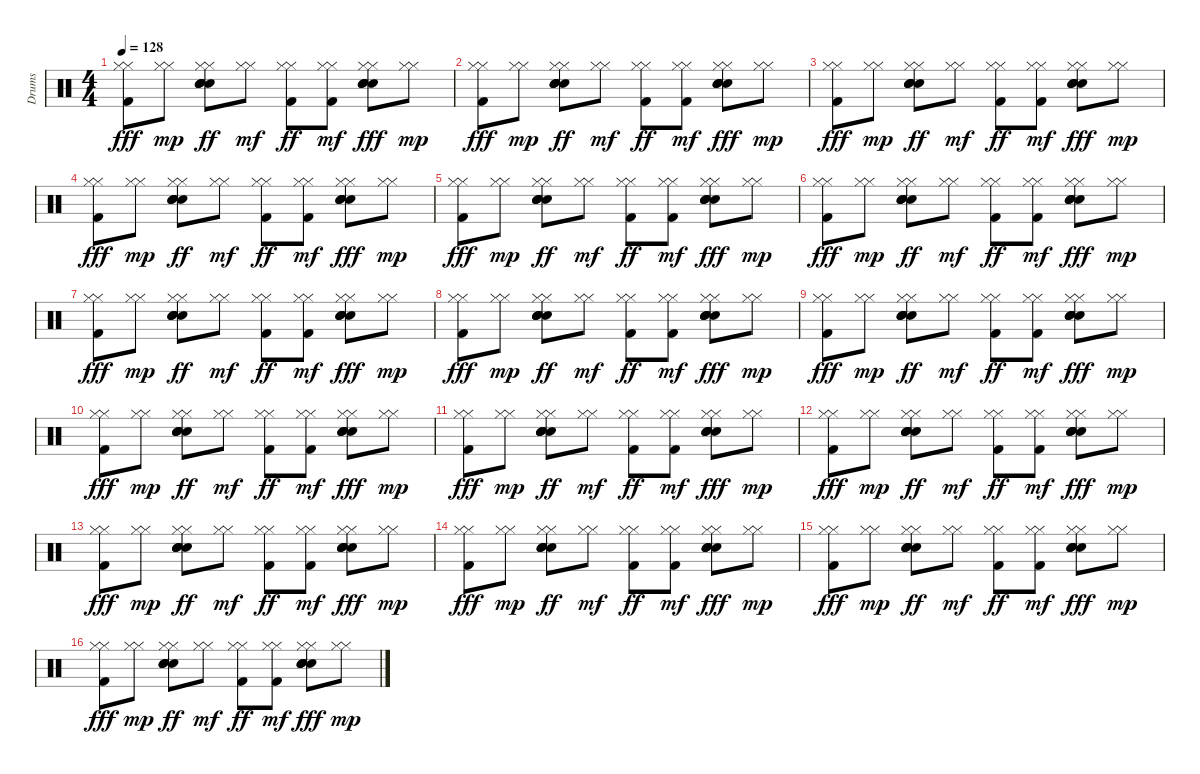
\track ("Drums" "Drums") {instrument percussion}
\staff {score}
\articulation defaults
\ts (4 4)
\tempo 128
\clef neutral
\ks c
("Kick (hit) 2" "Hi-Hat (closed)" "Hi-Hat (closed)").8{dy fff} ("Hi-Hat (closed)" "Hi-Hat (closed)").8{dy mp} ("Hi-Hat (closed)" "Hi-Hat (closed)" "Snare (hit) 2" "Electric Snare (hit)" "Electric Snare (hit)" "Electric Snare (hit)").8{dy ff} ("Hi-Hat (closed)" "Hi-Hat (closed)").8{dy mf} ("Kick (hit) 2" "Hi-Hat (closed)" "Hi-Hat (closed)").8{dy ff} ("Kick (hit) 2" "Hi-Hat (closed)" "Hi-Hat (closed)").8{dy mf} ("Snare (hit) 2" "Hi-Hat (closed)" "Hi-Hat (closed)" "Electric Snare (hit)" "Electric Snare (hit)" "Electric Snare (hit)").8{dy fff} ("Hi-Hat (closed)" "Hi-Hat (closed)").8{dy mp} |
("Kick (hit) 2" "Hi-Hat (closed)" "Hi-Hat (closed)").8{dy fff} ("Hi-Hat (closed)" "Hi-Hat (closed)").8{dy mp} ("Hi-Hat (closed)" "Hi-Hat (closed)" "Snare (hit) 2" "Electric Snare (hit)" "Electric Snare (hit)" "Electric Snare (hit)").8{dy ff} ("Hi-Hat (closed)" "Hi-Hat (closed)").8{dy mf} ("Kick (hit) 2" "Hi-Hat (closed)" "Hi-Hat (closed)").8{dy ff} ("Kick (hit) 2" "Hi-Hat (closed)" "Hi-Hat (closed)").8{dy mf} ("Snare (hit) 2" "Hi-Hat (closed)" "Hi-Hat (closed)" "Electric Snare (hit)" "Electric Snare (hit)" "Electric Snare (hit)").8{dy fff} ("Hi-Hat (closed)" "Hi-Hat (closed)").8{dy mp} |
("Kick (hit) 2" "Hi-Hat (closed)" "Hi-Hat (closed)").8{dy fff} ("Hi-Hat (closed)" "Hi-Hat (closed)").8{dy mp} ("Hi-Hat (closed)" "Hi-Hat (closed)" "Snare (hit) 2" "Electric Snare (hit)" "Electric Snare (hit)" "Electric Snare (hit)").8{dy ff} ("Hi-Hat (closed)" "Hi-Hat (closed)").8{dy mf} ("Kick (hit) 2" "Hi-Hat (closed)" "Hi-Hat (closed)").8{dy ff} ("Kick (hit) 2" "Hi-Hat (closed)" "Hi-Hat (closed)").8{dy mf} ("Snare (hit) 2" "Hi-Hat (closed)" "Hi-Hat (closed)" "Electric Snare (hit)" "Electric Snare (hit)" "Electric Snare (hit)").8{dy fff} ("Hi-Hat (closed)" "Hi-Hat (closed)").8{dy mp} |
("Kick (hit) 2" "Hi-Hat (closed)" "Hi-Hat (closed)").8{dy fff} ("Hi-Hat (closed)" "Hi-Hat (closed)").8{dy mp} ("Hi-Hat (closed)" "Hi-Hat (closed)" "Snare (hit) 2" "Electric Snare (hit)" "Electric Snare (hit)" "Electric Snare (hit)").8{dy ff} ("Hi-Hat (closed)" "Hi-Hat (closed)").8{dy mf} ("Kick (hit) 2" "Hi-Hat (closed)" "Hi-Hat (closed)").8{dy ff} ("Kick (hit) 2" "Hi-Hat (closed)" "Hi-Hat (closed)").8{dy mf} ("Snare (hit) 2" "Hi-Hat (closed)" "Hi-Hat (closed)" "Electric Snare (hit)" "Electric Snare (hit)" "Electric Snare (hit)").8{dy fff} ("Hi-Hat (closed)" "Hi-Hat (closed)").8{dy mp} |
("Kick (hit) 2" "Hi-Hat (closed)" "Hi-Hat (closed)").8{dy fff} ("Hi-Hat (closed)" "Hi-Hat (closed)").8{dy mp} ("Hi-Hat (closed)" "Hi-Hat (closed)" "Snare (hit) 2" "Electric Snare (hit)" "Electric Snare (hit)" "Electric Snare (hit)").8{dy ff} ("Hi-Hat (closed)" "Hi-Hat (closed)").8{dy mf} ("Kick (hit) 2" "Hi-Hat (closed)" "Hi-Hat (closed)").8{dy ff} ("Kick (hit) 2" "Hi-Hat (closed)" "Hi-Hat (closed)").8{dy mf} ("Snare (hit) 2" "Hi-Hat (closed)" "Hi-Hat (closed)" "Electric Snare (hit)" "Electric Snare (hit)" "Electric Snare (hit)").8{dy fff} ("Hi-Hat (closed)" "Hi-Hat (closed)").8{dy mp} |
("Kick (hit) 2" "Hi-Hat (closed)" "Hi-Hat (closed)").8{dy fff} ("Hi-Hat (closed)" "Hi-Hat (closed)").8{dy mp} ("Hi-Hat (closed)" "Hi-Hat (closed)" "Snare (hit) 2" "Electric Snare (hit)" "Electric Snare (hit)" "Electric Snare (hit)").8{dy ff} ("Hi-Hat (closed)" "Hi-Hat (closed)").8{dy mf} ("Kick (hit) 2" "Hi-Hat (closed)" "Hi-Hat (closed)").8{dy ff} ("Kick (hit) 2" "Hi-Hat (closed)" "Hi-Hat (closed)").8{dy mf} ("Snare (hit) 2" "Hi-Hat (closed)" "Hi-Hat (closed)" "Electric Snare (hit)" "Electric Snare (hit)" "Electric Snare (hit)").8{dy fff} ("Hi-Hat (closed)" "Hi-Hat (closed)").8{dy mp} |
("Kick (hit) 2" "Hi-Hat (closed)" "Hi-Hat (closed)").8{dy fff} ("Hi-Hat (closed)" "Hi-Hat (closed)").8{dy mp} ("Hi-Hat (closed)" "Hi-Hat (closed)" "Snare (hit) 2" "Electric Snare (hit)" "Electric Snare (hit)" "Electric Snare (hit)").8{dy ff} ("Hi-Hat (closed)" "Hi-Hat (closed)").8{dy mf} ("Kick (hit) 2" "Hi-Hat (closed)" "Hi-Hat (closed)").8{dy ff} ("Kick (hit) 2" "Hi-Hat (closed)" "Hi-Hat (closed)").8{dy mf} ("Snare (hit) 2" "Hi-Hat (closed)" "Hi-Hat (closed)" "Electric Snare (hit)" "Electric Snare (hit)" "Electric Snare (hit)").8{dy fff} ("Hi-Hat (closed)" "Hi-Hat (closed)").8{dy mp} |
("Kick (hit) 2" "Hi-Hat (closed)" "Hi-Hat (closed)").8{dy fff} ("Hi-Hat (closed)" "Hi-Hat (closed)").8{dy mp} ("Hi-Hat (closed)" "Hi-Hat (closed)" "Snare (hit) 2" "Electric Snare (hit)" "Electric Snare (hit)" "Electric Snare (hit)").8{dy ff} ("Hi-Hat (closed)" "Hi-Hat (closed)").8{dy mf} ("Kick (hit) 2" "Hi-Hat (closed)" "Hi-Hat (closed)").8{dy ff} ("Kick (hit) 2" "Hi-Hat (closed)" "Hi-Hat (closed)").8{dy mf} ("Snare (hit) 2" "Hi-Hat (closed)" "Hi-Hat (closed)" "Electric Snare (hit)" "Electric Snare (hit)" "Electric Snare (hit)").8{dy fff} ("Hi-Hat (closed)" "Hi-Hat (closed)").8{dy mp} |
("Kick (hit) 2" "Hi-Hat (closed)" "Hi-Hat (closed)").8{dy fff} ("Hi-Hat (closed)" "Hi-Hat (closed)").8{dy mp} ("Hi-Hat (closed)" "Hi-Hat (closed)" "Snare (hit) 2" "Electric Snare (hit)" "Electric Snare (hit)" "Electric Snare (hit)").8{dy ff} ("Hi-Hat (closed)" "Hi-Hat (closed)").8{dy mf} ("Kick (hit) 2" "Hi-Hat (closed)" "Hi-Hat (closed)").8{dy ff} ("Kick (hit) 2" "Hi-Hat (closed)" "Hi-Hat (closed)").8{dy mf} ("Snare (hit) 2" "Hi-Hat (closed)" "Hi-Hat (closed)" "Electric Snare (hit)" "Electric Snare (hit)" "Electric Snare (hit)").8{dy fff} ("Hi-Hat (closed)" "Hi-Hat (closed)").8{dy mp} |
("Kick (hit) 2" "Hi-Hat (closed)" "Hi-Hat (closed)").8{dy fff} ("Hi-Hat (closed)" "Hi-Hat (closed)").8{dy mp} ("Hi-Hat (closed)" "Hi-Hat (closed)" "Snare (hit) 2" "Electric Snare (hit)" "Electric Snare (hit)" "Electric Snare (hit)").8{dy ff} ("Hi-Hat (closed)" "Hi-Hat (closed)").8{dy mf} ("Kick (hit) 2" "Hi-Hat (closed)" "Hi-Hat (closed)").8{dy ff} ("Kick (hit) 2" "Hi-Hat (closed)" "Hi-Hat (closed)").8{dy mf} ("Snare (hit) 2" "Hi-Hat (closed)" "Hi-Hat (closed)" "Electric Snare (hit)" "Electric Snare (hit)" "Electric Snare (hit)").8{dy fff} ("Hi-Hat (closed)" "Hi-Hat (closed)").8{dy mp} |
("Kick (hit) 2" "Hi-Hat (closed)" "Hi-Hat (closed)").8{dy fff} ("Hi-Hat (closed)" "Hi-Hat (closed)").8{dy mp} ("Hi-Hat (closed)" "Hi-Hat (closed)" "Snare (hit) 2" "Electric Snare (hit)" "Electric Snare (hit)" "Electric Snare (hit)").8{dy ff} ("Hi-Hat (closed)" "Hi-Hat (closed)").8{dy mf} ("Kick (hit) 2" "Hi-Hat (closed)" "Hi-Hat (closed)").8{dy ff} ("Kick (hit) 2" "Hi-Hat (closed)" "Hi-Hat (closed)").8{dy mf} ("Snare (hit) 2" "Hi-Hat (closed)" "Hi-Hat (closed)" "Electric Snare (hit)" "Electric Snare (hit)" "Electric Snare (hit)").8{dy fff} ("Hi-Hat (closed)" "Hi-Hat (closed)").8{dy mp} |
("Kick (hit) 2" "Hi-Hat (closed)" "Hi-Hat (closed)").8{dy fff} ("Hi-Hat (closed)" "Hi-Hat (closed)").8{dy mp} ("Hi-Hat (closed)" "Hi-Hat (closed)" "Snare (hit) 2" "Electric Snare (hit)" "Electric Snare (hit)" "Electric Snare (hit)").8{dy ff} ("Hi-Hat (closed)" "Hi-Hat (closed)").8{dy mf} ("Kick (hit) 2" "Hi-Hat (closed)" "Hi-Hat (closed)").8{dy ff} ("Kick (hit) 2" "Hi-Hat (closed)" "Hi-Hat (closed)").8{dy mf} ("Snare (hit) 2" "Hi-Hat (closed)" "Hi-Hat (closed)" "Electric Snare (hit)" "Electric Snare (hit)" "Electric Snare (hit)").8{dy fff} ("Hi-Hat (closed)" "Hi-Hat (closed)").8{dy mp} |
("Kick (hit) 2" "Hi-Hat (closed)" "Hi-Hat (closed)").8{dy fff} ("Hi-Hat (closed)" "Hi-Hat (closed)").8{dy mp} ("Hi-Hat (closed)" "Hi-Hat (closed)" "Snare (hit) 2" "Electric Snare (hit)" "Electric Snare (hit)" "Electric Snare (hit)").8{dy ff} ("Hi-Hat (closed)" "Hi-Hat (closed)").8{dy mf} ("Kick (hit) 2" "Hi-Hat (closed)" "Hi-Hat (closed)").8{dy ff} ("Kick (hit) 2" "Hi-Hat (closed)" "Hi-Hat (closed)").8{dy mf} ("Snare (hit) 2" "Hi-Hat (closed)" "Hi-Hat (closed)" "Electric Snare (hit)" "Electric Snare (hit)" "Electric Snare (hit)").8{dy fff} ("Hi-Hat (closed)" "Hi-Hat (closed)").8{dy mp} |
("Kick (hit) 2" "Hi-Hat (closed)" "Hi-Hat (closed)").8{dy fff} ("Hi-Hat (closed)" "Hi-Hat (closed)").8{dy mp} ("Hi-Hat (closed)" "Hi-Hat (closed)" "Snare (hit) 2" "Electric Snare (hit)" "Electric Snare (hit)" "Electric Snare (hit)").8{dy ff} ("Hi-Hat (closed)" "Hi-Hat (closed)").8{dy mf} ("Kick (hit) 2" "Hi-Hat (closed)" "Hi-Hat (closed)").8{dy ff} ("Kick (hit) 2" "Hi-Hat (closed)" "Hi-Hat (closed)").8{dy mf} ("Snare (hit) 2" "Hi-Hat (closed)" "Hi-Hat (closed)" "Electric Snare (hit)" "Electric Snare (hit)" "Electric Snare (hit)").8{dy fff} ("Hi-Hat (closed)" "Hi-Hat (closed)").8{dy mp} |
("Kick (hit) 2" "Hi-Hat (closed)" "Hi-Hat (closed)").8{dy fff} ("Hi-Hat (closed)" "Hi-Hat (closed)").8{dy mp} ("Hi-Hat (closed)" "Hi-Hat (closed)" "Snare (hit) 2" "Electric Snare (hit)" "Electric Snare (hit)" "Electric Snare (hit)").8{dy ff} ("Hi-Hat (closed)" "Hi-Hat (closed)").8{dy mf} ("Kick (hit) 2" "Hi-Hat (closed)" "Hi-Hat (closed)").8{dy ff} ("Kick (hit) 2" "Hi-Hat (closed)" "Hi-Hat (closed)").8{dy mf} ("Snare (hit) 2" "Hi-Hat (closed)" "Hi-Hat (closed)" "Electric Snare (hit)" "Electric Snare (hit)" "Electric Snare (hit)").8{dy fff} ("Hi-Hat (closed)" "Hi-Hat (closed)").8{dy mp} |
("Kick (hit) 2" "Hi-Hat (closed)" "Hi-Hat (closed)").8{dy fff} ("Hi-Hat (closed)" "Hi-Hat (closed)").8{dy mp} ("Hi-Hat (closed)" "Hi-Hat (closed)" "Snare (hit) 2" "Electric Snare (hit)" "Electric Snare (hit)" "Electric Snare (hit)").8{dy ff} ("Hi-Hat (closed)" "Hi-Hat (closed)").8{dy mf} ("Kick (hit) 2" "Hi-Hat (closed)" "Hi-Hat (closed)").8{dy ff} ("Kick (hit) 2" "Hi-Hat (closed)" "Hi-Hat (closed)").8{dy mf} ("Snare (hit) 2" "Hi-Hat (closed)" "Hi-Hat (closed)" "Electric Snare (hit)" "Electric Snare (hit)" "Electric Snare (hit)").8{dy fff} ("Hi-Hat (closed)" "Hi-Hat (closed)").8{dy mp}
